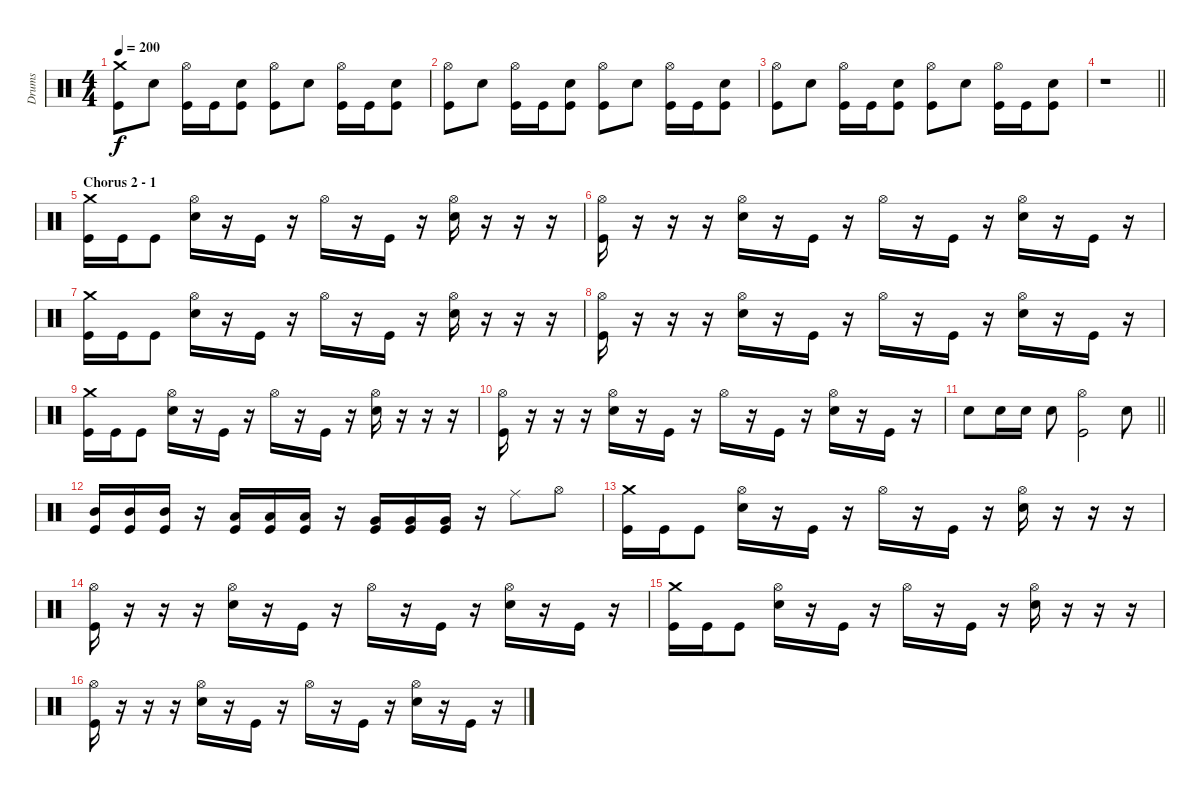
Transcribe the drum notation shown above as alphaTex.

\track ("Drums" "Drums") {instrument percussion}
\staff {score}
\articulation defaults
\ts (4 4)
\tempo 200
\clef neutral
\ks c
("Crash medium (hit)" "Kick (hit)").8{dy f} "Snare (hit) 2".8 ("Hi-Hat (open)" "Kick (hit)").16 "Kick (hit)".16 ("Snare (hit) 2" "Kick (hit)").8 ("Hi-Hat (open)" "Kick (hit)").8 "Snare (hit) 2".8 ("Hi-Hat (open)" "Kick (hit)").16 "Kick (hit)".16 ("Snare (hit) 2" "Kick (hit)").8 |
("Hi-Hat (open)" "Kick (hit)").8 "Snare (hit) 2".8 ("Hi-Hat (open)" "Kick (hit)").16 "Kick (hit)".16 ("Snare (hit) 2" "Kick (hit)").8 ("Hi-Hat (open)" "Kick (hit)").8 "Snare (hit) 2".8 ("Hi-Hat (open)" "Kick (hit)").16 "Kick (hit)".16 ("Snare (hit) 2" "Kick (hit)").8 |
("Hi-Hat (open)" "Kick (hit)").8 "Snare (hit) 2".8 ("Hi-Hat (open)" "Kick (hit)").16 "Kick (hit)".16 ("Snare (hit) 2" "Kick (hit)").8 ("Hi-Hat (open)" "Kick (hit)").8 "Snare (hit) 2".8 ("Hi-Hat (open)" "Kick (hit)").16 "Kick (hit)".16 ("Snare (hit) 2" "Kick (hit)").8 |
\barLineRight lightlight
r.1 |
\section ("" "Chorus 2 - 1")
("Crash medium (hit)" "Kick (hit)").16 "Kick (hit)".16 "Kick (hit)".8 ("Hi-Hat (open)" "Snare (hit) 2").16 r.16 "Kick (hit)".16 r.16 "Hi-Hat (open)".16 r.16 "Kick (hit)".16 r.16 ("Hi-Hat (open)" "Snare (hit) 2").16 r.16 r.16 r.16 |
("Hi-Hat (open)" "Kick (hit)").16 r.16 r.16 r.16 ("Hi-Hat (open)" "Snare (hit) 2").16 r.16 "Kick (hit)".16 r.16 "Hi-Hat (open)".16 r.16 "Kick (hit)".16 r.16 ("Hi-Hat (open)" "Snare (hit) 2").16 r.16 "Kick (hit)".16 r.16 |
("Crash medium (hit)" "Kick (hit)").16 "Kick (hit)".16 "Kick (hit)".8 ("Hi-Hat (open)" "Snare (hit) 2").16 r.16 "Kick (hit)".16 r.16 "Hi-Hat (open)".16 r.16 "Kick (hit)".16 r.16 ("Hi-Hat (open)" "Snare (hit) 2").16 r.16 r.16 r.16 |
("Hi-Hat (open)" "Kick (hit)").16 r.16 r.16 r.16 ("Hi-Hat (open)" "Snare (hit) 2").16 r.16 "Kick (hit)".16 r.16 "Hi-Hat (open)".16 r.16 "Kick (hit)".16 r.16 ("Hi-Hat (open)" "Snare (hit) 2").16 r.16 "Kick (hit)".16 r.16 |
("Crash medium (hit)" "Kick (hit)").16 "Kick (hit)".16 "Kick (hit)".8 ("Hi-Hat (open)" "Snare (hit) 2").16 r.16 "Kick (hit)".16 r.16 "Hi-Hat (open)".16 r.16 "Kick (hit)".16 r.16 ("Hi-Hat (open)" "Snare (hit) 2").16 r.16 r.16 r.16 |
("Hi-Hat (open)" "Kick (hit)").16 r.16 r.16 r.16 ("Hi-Hat (open)" "Snare (hit) 2").16 r.16 "Kick (hit)".16 r.16 "Hi-Hat (open)".16 r.16 "Kick (hit)".16 r.16 ("Hi-Hat (open)" "Snare (hit) 2").16 r.16 "Kick (hit)".16 r.16 |
\barLineRight lightlight "Snare (hit) 2".8 "Snare (hit) 2".16 "Snare (hit) 2".16 "Snare (hit) 2".8
("Hi-Hat (open)" "Kick (hit)").2 "Snare (hit) 2".8 |
("Mid Tom (hit)" "Kick (hit)").16 ("Mid Tom (hit)" "Kick (hit)").16 ("Mid Tom (hit)" "Kick (hit)").16 r.16 ("Low Tom (hit)" "Kick (hit)").16 ("Low Tom (hit)" "Kick (hit)").16 ("Low Tom (hit)" "Kick (hit)").16 r.16 ("Very Low Tom (hit)" "Kick (hit)").16 ("Very Low Tom (hit)" "Kick (hit)").16 ("Very Low Tom (hit)" "Kick (hit)").16 r.16 "Ride (middle)".8 "Hi-Hat (open)".8 |
("Crash medium (hit)" "Kick (hit)").16 "Kick (hit)".16 "Kick (hit)".8 ("Hi-Hat (open)" "Snare (hit) 2").16 r.16 "Kick (hit)".16 r.16 "Hi-Hat (open)".16 r.16 "Kick (hit)".16 r.16 ("Hi-Hat (open)" "Snare (hit) 2").16 r.16 r.16 r.16 |
("Hi-Hat (open)" "Kick (hit)").16 r.16 r.16 r.16 ("Hi-Hat (open)" "Snare (hit) 2").16 r.16 "Kick (hit)".16 r.16 "Hi-Hat (open)".16 r.16 "Kick (hit)".16 r.16 ("Hi-Hat (open)" "Snare (hit) 2").16 r.16 "Kick (hit)".16 r.16 |
("Crash medium (hit)" "Kick (hit)").16 "Kick (hit)".16 "Kick (hit)".8 ("Hi-Hat (open)" "Snare (hit) 2").16 r.16 "Kick (hit)".16 r.16 "Hi-Hat (open)".16 r.16 "Kick (hit)".16 r.16 ("Hi-Hat (open)" "Snare (hit) 2").16 r.16 r.16 r.16 |
("Hi-Hat (open)" "Kick (hit)").16 r.16 r.16 r.16 ("Hi-Hat (open)" "Snare (hit) 2").16 r.16 "Kick (hit)".16 r.16 "Hi-Hat (open)".16 r.16 "Kick (hit)".16 r.16 ("Hi-Hat (open)" "Snare (hit) 2").16 r.16 "Kick (hit)".16 r.16
